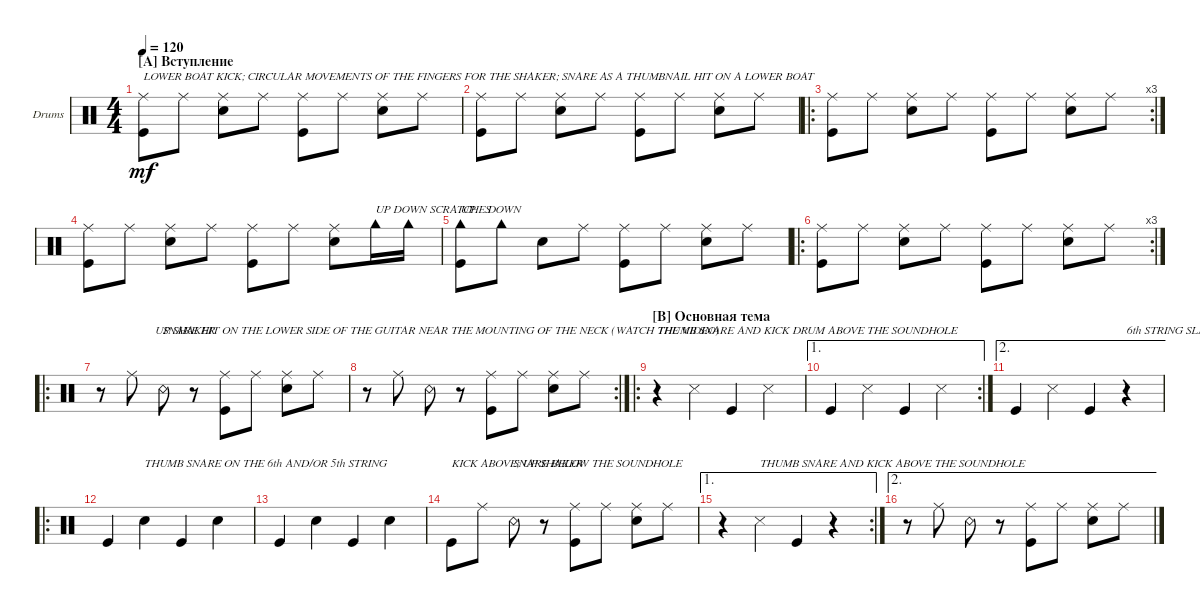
\defaultSystemsLayout 4
\bracketExtendMode groupsimilarinstruments
\firstSystemTrackNameOrientation horizontal
\otherSystemsTrackNameOrientation horizontal
\track ("Drumkit" "Drums") {instrument percussion}
\staff {score}
\articulation defaults
\ts (4 4)
\section ("A" "Вступление")
\tempo 120
\clef neutral
\ks c
("Kick (hit)" "Ride (middle)").8{txt "LOWER BOAT KICK; CIRCULAR MOVEMENTS OF THE FINGERS FOR THE SHAKER; SNARE AS A THUMBNAIL HIT ON A LOWER BOAT" dy mf} "Ride (middle)".8 ("Snare (hit) 2" "Ride (middle)").8 "Ride (middle)".8 ("Kick (hit)" "Ride (middle)").8 "Ride (middle)".8 ("Snare (hit) 2" "Ride (middle)").8 "Ride (middle)".8 |
("Kick (hit)" "Ride (middle)").8 "Ride (middle)".8 ("Snare (hit) 2" "Ride (middle)").8 "Ride (middle)".8 ("Kick (hit)" "Ride (middle)").8 "Ride (middle)".8 ("Snare (hit) 2" "Ride (middle)").8 "Ride (middle)".8 |
\ro
\rc 3
("Kick (hit)" "Ride (middle)").8 "Ride (middle)".8 ("Snare (hit) 2" "Ride (middle)").8 "Ride (middle)".8 ("Kick (hit)" "Ride (middle)").8 "Ride (middle)".8 ("Snare (hit) 2" "Ride (middle)").8 "Ride (middle)".8 |
("Kick (hit)" "Ride (middle)").8 "Ride (middle)".8 ("Snare (hit) 2" "Ride (middle)").8 "Ride (middle)".8 ("Kick (hit)" "Ride (middle)").8 "Ride (middle)".8 ("Snare (hit) 2" "Ride (middle)").8 "Cowbell high (hit)".16{txt "UP DOWN SCRATCHES"} "Cowbell high (hit)".16 |
("Kick (hit)" "Cowbell high (hit)").8{txt "UP    DOWN"} "Cowbell high (hit)".8 "Snare (hit) 2".8 "Ride (middle)".8 ("Kick (hit)" "Ride (middle)").8 "Ride (middle)".8 ("Snare (hit) 2" "Ride (middle)").8 "Ride (middle)".8 |
\ro
\rc 3
("Kick (hit)" "Ride (middle)").8 "Ride (middle)".8 ("Snare (hit) 2" "Ride (middle)").8 "Ride (middle)".8 ("Kick (hit)" "Ride (middle)").8 "Ride (middle)".8 ("Snare (hit) 2" "Ride (middle)").8 "Ride (middle)".8 |
\ro
r.8{txt "                  UP SHAKER"} "Ride (middle)".8 "Snare (rim shot)".8{txt "SNARE HIT ON THE LOWER SIDE OF THE GUITAR NEAR THE MOUNTING OF THE NECK (WATCH THE VIDEO)"} r.8 ("Kick (hit)" "Ride (middle)").8 "Ride (middle)".8 ("Snare (hit) 2" "Ride (middle)").8 "Ride (middle)".8 |
\rc 2
r.8 "Ride (middle)".8 "Snare (rim shot)".8 r.8 ("Kick (hit)" "Ride (middle)").8 "Ride (middle)".8 ("Snare (hit) 2" "Ride (middle)").8 "Ride (middle)".8 |
\ro
\section ("B" "Основная тема")
r.4{txt "THUMB SNARE AND KICK DRUM ABOVE THE SOUNDHOLE"} "Snare (side stick) 3".4 "Kick (hit)".4 "Snare (side stick) 3".4 |
\ae 1
\rc 2 "Kick (hit)".4 "Snare (side stick) 3".4 "Kick (hit)".4 "Snare (side stick) 3".4
|
\ae 2 "Kick (hit)".4 "Snare (side stick) 3".4 "Kick (hit)".4
r.4{txt "6th STRING SLAP WITH THE THUMB"} |
\ro "Kick (hit)".4 "Snare (hit) 2".4{txt "THUMB SNARE ON THE 6th AND/OR 5th STRING"} "Kick (hit)".4 "Snare (hit) 2".4
|
"Kick (hit)".4 "Snare (hit) 2".4 "Kick (hit)".4 "Snare (hit) 2".4 |
"Kick (hit)".8{txt "KICK ABOVE; UP SHAKER"} "Ride (middle)".8 "Snare (rim shot)".8{txt "SNARE BELOW THE SOUNDHOLE"} r.8 ("Kick (hit)" "Ride (middle)").8 "Ride (middle)".8 ("Snare (hit) 2" "Ride (middle)").8 "Ride (middle)".8 |
\ae 1
\rc 2
r.4 "Snare (side stick) 3".4{txt "THUMB SNARE AND KICK ABOVE THE SOUNDHOLE"} "Kick (hit)".4 r.4 |
\ae 2
r.8 "Ride (middle)".8 "Snare (rim shot)".8 r.8 ("Kick (hit)" "Ride (middle)").8 "Ride (middle)".8 ("Snare (hit) 2" "Ride (middle)").8 "Ride (middle)".8
